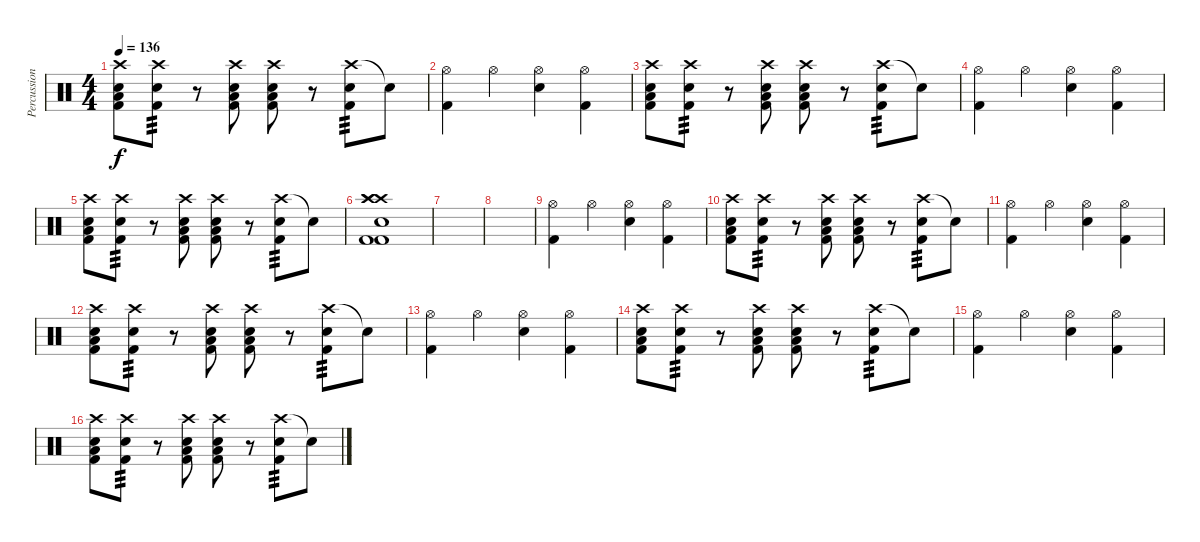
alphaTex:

\track ("Percussioni" "Percussion") {instrument percussion}
\staff {score}
\articulation defaults
\ts (4 4)
\tempo 136
\clef neutral
\ks c
("Crash high (hit)" "Low Floor Tom (hit)" "Snare (hit) 2" "Kick (hit) 2").8{dy f} ("Crash high (hit)" "Snare (hit) 2" "Kick (hit) 2").8{tp 3} r.8 ("Crash high (hit)" "Low Floor Tom (hit)" "Snare (hit) 2" "Kick (hit) 2").8 ("Crash high (hit)" "Low Floor Tom (hit)" "Snare (hit) 2" "Kick (hit) 2").8 r.8 ("Crash high (hit)" "Snare (hit) 2" "Kick (hit) 2").8{tp 3} "Snare (hit)"{t}.8 |
("Hi-Hat (open)" "Kick (hit) 2").4 "Hi-Hat (open)".4 ("Hi-Hat (open)" "Snare (hit) 2").4 ("Hi-Hat (open)" "Kick (hit) 2").4 |
("Crash high (hit)" "Low Floor Tom (hit)" "Snare (hit) 2" "Kick (hit) 2").8 ("Crash high (hit)" "Snare (hit) 2" "Kick (hit) 2").8{tp 3} r.8 ("Crash high (hit)" "Low Floor Tom (hit)" "Snare (hit) 2" "Kick (hit) 2").8 ("Crash high (hit)" "Low Floor Tom (hit)" "Snare (hit) 2" "Kick (hit) 2").8 r.8 ("Crash high (hit)" "Snare (hit) 2" "Kick (hit) 2").8{tp 3} "Snare (hit)"{t}.8 |
("Hi-Hat (open)" "Kick (hit) 2").4 "Hi-Hat (open)".4 ("Hi-Hat (open)" "Snare (hit) 2").4 ("Hi-Hat (open)" "Kick (hit) 2").4 |
("Crash high (hit)" "Low Floor Tom (hit)" "Snare (hit) 2" "Kick (hit) 2").8 ("Crash high (hit)" "Snare (hit) 2" "Kick (hit) 2").8{tp 3} r.8 ("Crash high (hit)" "Low Floor Tom (hit)" "Snare (hit) 2" "Kick (hit) 2").8 ("Crash high (hit)" "Low Floor Tom (hit)" "Snare (hit) 2" "Kick (hit) 2").8 r.8 ("Crash high (hit)" "Snare (hit) 2" "Kick (hit) 2").8{tp 3} "Snare (hit)"{t}.8 |
("Crash high (hit)" "Crash high (hit)" "Crash high (hit)" "Snare (hit) 2" "Kick (hit) 2" "Kick (hit) 2").1 |
|
|
("Hi-Hat (open)" "Kick (hit) 2").4 "Hi-Hat (open)".4 ("Hi-Hat (open)" "Snare (hit) 2").4 ("Hi-Hat (open)" "Kick (hit) 2").4 |
("Crash high (hit)" "Low Floor Tom (hit)" "Snare (hit) 2" "Kick (hit) 2").8 ("Crash high (hit)" "Snare (hit) 2" "Kick (hit) 2").8{tp 3} r.8 ("Crash high (hit)" "Low Floor Tom (hit)" "Snare (hit) 2" "Kick (hit) 2").8 ("Crash high (hit)" "Low Floor Tom (hit)" "Snare (hit) 2" "Kick (hit) 2").8 r.8 ("Crash high (hit)" "Snare (hit) 2" "Kick (hit) 2").8{tp 3} "Snare (hit)"{t}.8 |
("Hi-Hat (open)" "Kick (hit) 2").4 "Hi-Hat (open)".4 ("Hi-Hat (open)" "Snare (hit) 2").4 ("Hi-Hat (open)" "Kick (hit) 2").4 |
("Crash high (hit)" "Low Floor Tom (hit)" "Snare (hit) 2" "Kick (hit) 2").8 ("Crash high (hit)" "Snare (hit) 2" "Kick (hit) 2").8{tp 3} r.8 ("Crash high (hit)" "Low Floor Tom (hit)" "Snare (hit) 2" "Kick (hit) 2").8 ("Crash high (hit)" "Low Floor Tom (hit)" "Snare (hit) 2" "Kick (hit) 2").8 r.8 ("Crash high (hit)" "Snare (hit) 2" "Kick (hit) 2").8{tp 3} "Snare (hit)"{t}.8 |
("Hi-Hat (open)" "Kick (hit) 2").4 "Hi-Hat (open)".4 ("Hi-Hat (open)" "Snare (hit) 2").4 ("Hi-Hat (open)" "Kick (hit) 2").4 |
("Crash high (hit)" "Low Floor Tom (hit)" "Snare (hit) 2" "Kick (hit) 2").8 ("Crash high (hit)" "Snare (hit) 2" "Kick (hit) 2").8{tp 3} r.8 ("Crash high (hit)" "Low Floor Tom (hit)" "Snare (hit) 2" "Kick (hit) 2").8 ("Crash high (hit)" "Low Floor Tom (hit)" "Snare (hit) 2" "Kick (hit) 2").8 r.8 ("Crash high (hit)" "Snare (hit) 2" "Kick (hit) 2").8{tp 3} "Snare (hit)"{t}.8 |
("Hi-Hat (open)" "Kick (hit) 2").4 "Hi-Hat (open)".4 ("Hi-Hat (open)" "Snare (hit) 2").4 ("Hi-Hat (open)" "Kick (hit) 2").4 |
("Crash high (hit)" "Low Floor Tom (hit)" "Snare (hit) 2" "Kick (hit) 2").8 ("Crash high (hit)" "Snare (hit) 2" "Kick (hit) 2").8{tp 3} r.8 ("Crash high (hit)" "Low Floor Tom (hit)" "Snare (hit) 2" "Kick (hit) 2").8 ("Crash high (hit)" "Low Floor Tom (hit)" "Snare (hit) 2" "Kick (hit) 2").8 r.8 ("Crash high (hit)" "Snare (hit) 2" "Kick (hit) 2").8{tp 3} "Snare (hit)"{t}.8
